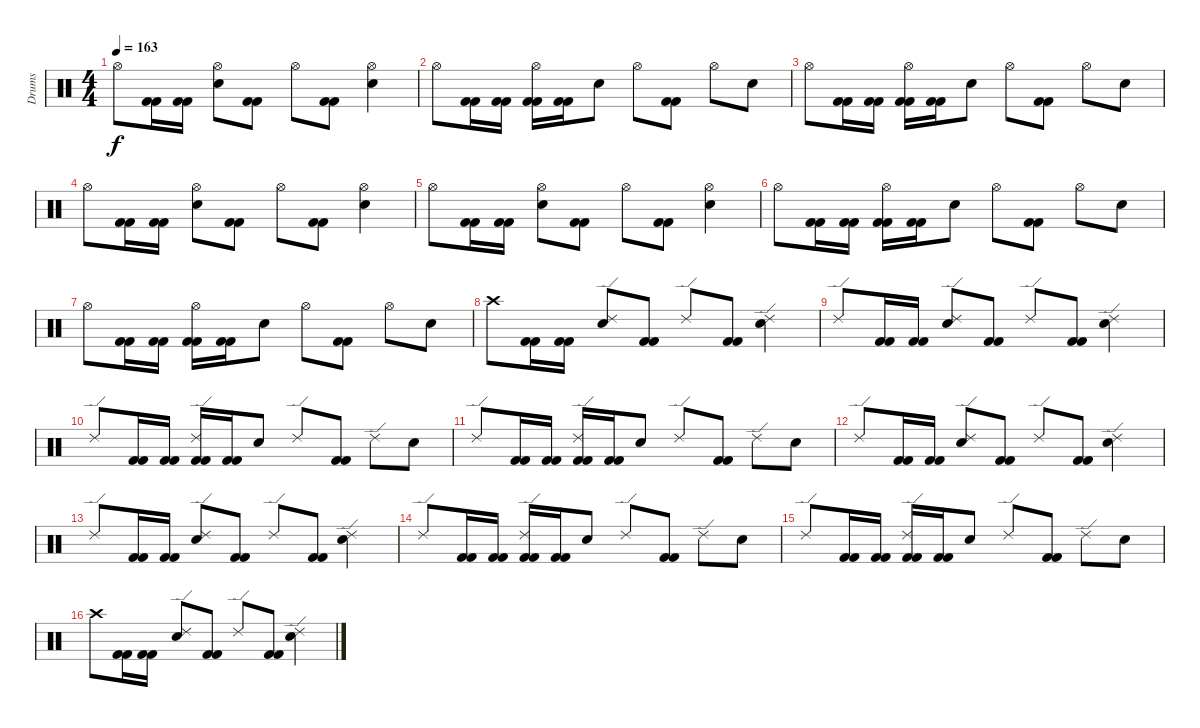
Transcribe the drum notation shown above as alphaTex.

\track ("Drums" "Drums") {instrument percussion}
\staff {score}
\articulation defaults
\ts (4 4)
\tempo 163
\clef neutral
\ks c "Hi-Hat (open)".8{dy f}
("Kick (hit) 2" "Kick (hit) 2").16 ("Kick (hit) 2" "Kick (hit) 2").16 ("Hi-Hat (open)" "Snare (hit) 2").8 ("Kick (hit) 2" "Kick (hit) 2").8 "Hi-Hat (open)".8 ("Kick (hit) 2" "Kick (hit) 2").8 ("Hi-Hat (open)" "Snare (hit) 2").4 |
"Hi-Hat (open)".8 ("Kick (hit) 2" "Kick (hit) 2").16 ("Kick (hit) 2" "Kick (hit) 2").16 ("Hi-Hat (open)" "Kick (hit) 2" "Kick (hit) 2").16 ("Kick (hit) 2" "Kick (hit) 2").16 "Snare (hit) 2".8 "Hi-Hat (open)".8 ("Kick (hit) 2" "Kick (hit) 2").8 "Hi-Hat (open)".8 "Snare (hit) 2".8 |
"Hi-Hat (open)".8 ("Kick (hit) 2" "Kick (hit) 2").16 ("Kick (hit) 2" "Kick (hit) 2").16 ("Hi-Hat (open)" "Kick (hit) 2" "Kick (hit) 2").16 ("Kick (hit) 2" "Kick (hit) 2").16 "Snare (hit) 2".8 "Hi-Hat (open)".8 ("Kick (hit) 2" "Kick (hit) 2").8 "Hi-Hat (open)".8 "Snare (hit) 2".8 |
"Hi-Hat (open)".8 ("Kick (hit) 2" "Kick (hit) 2").16 ("Kick (hit) 2" "Kick (hit) 2").16 ("Hi-Hat (open)" "Snare (hit) 2").8 ("Kick (hit) 2" "Kick (hit) 2").8 "Hi-Hat (open)".8 ("Kick (hit) 2" "Kick (hit) 2").8 ("Hi-Hat (open)" "Snare (hit) 2").4 |
"Hi-Hat (open)".8 ("Kick (hit) 2" "Kick (hit) 2").16 ("Kick (hit) 2" "Kick (hit) 2").16 ("Hi-Hat (open)" "Snare (hit) 2").8 ("Kick (hit) 2" "Kick (hit) 2").8 "Hi-Hat (open)".8 ("Kick (hit) 2" "Kick (hit) 2").8 ("Hi-Hat (open)" "Snare (hit) 2").4 |
"Hi-Hat (open)".8 ("Kick (hit) 2" "Kick (hit) 2").16 ("Kick (hit) 2" "Kick (hit) 2").16 ("Hi-Hat (open)" "Kick (hit) 2" "Kick (hit) 2").16 ("Kick (hit) 2" "Kick (hit) 2").16 "Snare (hit) 2".8 "Hi-Hat (open)".8 ("Kick (hit) 2" "Kick (hit) 2").8 "Hi-Hat (open)".8 "Snare (hit) 2".8 |
"Hi-Hat (open)".8 ("Kick (hit) 2" "Kick (hit) 2").16 ("Kick (hit) 2" "Kick (hit) 2").16 ("Hi-Hat (open)" "Kick (hit) 2" "Kick (hit) 2").16 ("Kick (hit) 2" "Kick (hit) 2").16 "Snare (hit) 2".8 "Hi-Hat (open)".8 ("Kick (hit) 2" "Kick (hit) 2").8 "Hi-Hat (open)".8 "Snare (hit) 2".8 |
"Crash high (hit)".8 ("Kick (hit) 2" "Kick (hit) 2").16 ("Kick (hit) 2" "Kick (hit) 2").16 ("Ride (edge) 2" "Snare (hit) 2").8 ("Kick (hit) 2" "Kick (hit) 2").8 "Ride (edge) 2".8 ("Kick (hit) 2" "Kick (hit) 2").8 ("Ride (edge) 2" "Snare (hit) 2").4 |
"Ride (edge) 2".8 ("Kick (hit) 2" "Kick (hit) 2").16 ("Kick (hit) 2" "Kick (hit) 2").16 ("Ride (edge) 2" "Snare (hit) 2").8 ("Kick (hit) 2" "Kick (hit) 2").8 "Ride (edge) 2".8 ("Kick (hit) 2" "Kick (hit) 2").8 ("Ride (edge) 2" "Snare (hit) 2").4 |
"Ride (edge) 2".8 ("Kick (hit) 2" "Kick (hit) 2").16 ("Kick (hit) 2" "Kick (hit) 2").16 ("Ride (edge) 2" "Kick (hit) 2" "Kick (hit) 2").16 ("Kick (hit) 2" "Kick (hit) 2").16 "Snare (hit) 2".8 "Ride (edge) 2".8 ("Kick (hit) 2" "Kick (hit) 2").8 "Ride (edge) 2".8 "Snare (hit) 2".8 |
"Ride (edge) 2".8 ("Kick (hit) 2" "Kick (hit) 2").16 ("Kick (hit) 2" "Kick (hit) 2").16 ("Ride (edge) 2" "Kick (hit) 2" "Kick (hit) 2").16 ("Kick (hit) 2" "Kick (hit) 2").16 "Snare (hit) 2".8 "Ride (edge) 2".8 ("Kick (hit) 2" "Kick (hit) 2").8 "Ride (edge) 2".8 "Snare (hit) 2".8 |
"Ride (edge) 2".8 ("Kick (hit) 2" "Kick (hit) 2").16 ("Kick (hit) 2" "Kick (hit) 2").16 ("Ride (edge) 2" "Snare (hit) 2").8 ("Kick (hit) 2" "Kick (hit) 2").8 "Ride (edge) 2".8 ("Kick (hit) 2" "Kick (hit) 2").8 ("Ride (edge) 2" "Snare (hit) 2").4 |
"Ride (edge) 2".8 ("Kick (hit) 2" "Kick (hit) 2").16 ("Kick (hit) 2" "Kick (hit) 2").16 ("Ride (edge) 2" "Snare (hit) 2").8 ("Kick (hit) 2" "Kick (hit) 2").8 "Ride (edge) 2".8 ("Kick (hit) 2" "Kick (hit) 2").8 ("Ride (edge) 2" "Snare (hit) 2").4 |
"Ride (edge) 2".8 ("Kick (hit) 2" "Kick (hit) 2").16 ("Kick (hit) 2" "Kick (hit) 2").16 ("Ride (edge) 2" "Kick (hit) 2" "Kick (hit) 2").16 ("Kick (hit) 2" "Kick (hit) 2").16 "Snare (hit) 2".8 "Ride (edge) 2".8 ("Kick (hit) 2" "Kick (hit) 2").8 "Ride (edge) 2".8 "Snare (hit) 2".8 |
"Ride (edge) 2".8 ("Kick (hit) 2" "Kick (hit) 2").16 ("Kick (hit) 2" "Kick (hit) 2").16 ("Ride (edge) 2" "Kick (hit) 2" "Kick (hit) 2").16 ("Kick (hit) 2" "Kick (hit) 2").16 "Snare (hit) 2".8 "Ride (edge) 2".8 ("Kick (hit) 2" "Kick (hit) 2").8 "Ride (edge) 2".8 "Snare (hit) 2".8 |
"Crash high (hit)".8 ("Kick (hit) 2" "Kick (hit) 2").16 ("Kick (hit) 2" "Kick (hit) 2").16 ("Ride (edge) 2" "Snare (hit) 2").8 ("Kick (hit) 2" "Kick (hit) 2").8 "Ride (edge) 2".8 ("Kick (hit) 2" "Kick (hit) 2").8 ("Ride (edge) 2" "Snare (hit) 2").4
